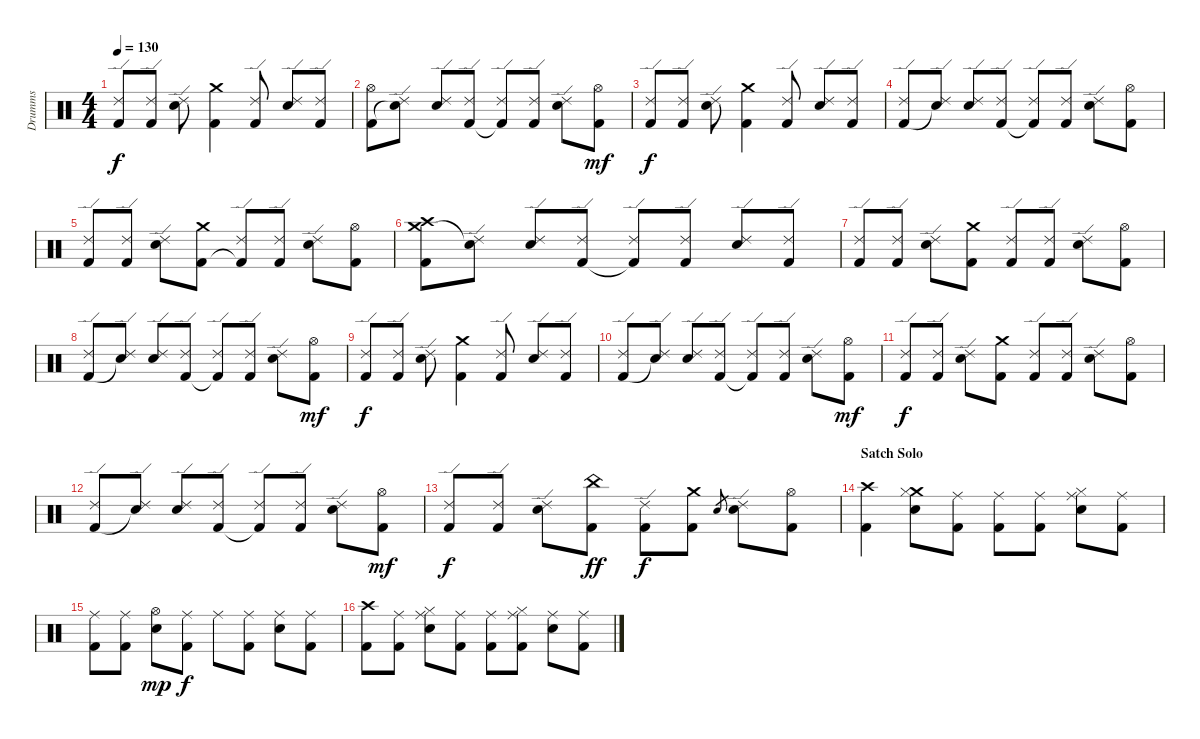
\track ("Drumms" "Drumms") {instrument percussion}
\staff {score}
\articulation defaults
\ts (4 4)
\tempo 130
\clef neutral
\ks c
("Ride (edge) 2" "Kick (hit) 2").8{dy f} ("Ride (edge) 2" "Kick (hit) 2").8 ("Ride (edge) 2" "Electric Snare (hit)").8 ("Crash medium (hit)" "Kick (hit) 2").4 ("Ride (edge) 2" "Kick (hit) 2").8 ("Ride (edge) 2" "Electric Snare (hit)").8 ("Ride (edge) 2" "Kick (hit) 2").8 |
("Hi-Hat (open)" "Kick (hit) 2").8 ("Ride (edge) 2" "Electric Snare (hit)"{t}).8 ("Ride (edge) 2" "Electric Snare (hit)").8 ("Ride (edge) 2" "Kick (hit) 2").8 ("Ride (edge) 2" "Kick (hit) 2"{t}).8 ("Ride (edge) 2" "Kick (hit) 2").8 ("Ride (edge) 2" "Electric Snare (hit)").8 ("Hi-Hat (open)" "Kick (hit) 2").8{dy mf} |
("Ride (edge) 2" "Kick (hit) 2").8{dy f} ("Ride (edge) 2" "Kick (hit) 2").8 ("Ride (edge) 2" "Electric Snare (hit)").8 ("Crash medium (hit)" "Kick (hit) 2").4 ("Ride (edge) 2" "Kick (hit) 2").8 ("Ride (edge) 2" "Electric Snare (hit)").8 ("Ride (edge) 2" "Kick (hit) 2").8 |
("Ride (edge) 2" "Kick (hit) 2").8 ("Ride (edge) 2" "Electric Snare (hit)"{t}).8 ("Ride (edge) 2" "Electric Snare (hit)").8 ("Ride (edge) 2" "Kick (hit) 2").8 ("Ride (edge) 2" "Kick (hit) 2"{t}).8 ("Ride (edge) 2" "Kick (hit) 2").8 ("Ride (edge) 2" "Electric Snare (hit)").8 ("Hi-Hat (open)" "Kick (hit) 2").8 |
("Ride (edge) 2" "Kick (hit) 2").8 ("Ride (edge) 2" "Kick (hit) 2").8 ("Ride (edge) 2" "Electric Snare (hit)").8 ("Crash medium (hit)" "Kick (hit) 2").8 ("Ride (edge) 2" "Kick (hit) 2"{t}).8 ("Ride (edge) 2" "Kick (hit) 2").8 ("Ride (edge) 2" "Electric Snare (hit)").8 ("Hi-Hat (open)" "Kick (hit) 2").8 |
("Crash high (hit)" "Crash medium (hit)" "Kick (hit) 2").8 ("Ride (edge) 2" "Electric Snare (hit)"{t}).8 ("Ride (edge) 2" "Electric Snare (hit)").8 ("Ride (edge) 2" "Kick (hit) 2").8 ("Ride (edge) 2" "Kick (hit) 2"{t}).8 ("Ride (edge) 2" "Kick (hit) 2").8 ("Ride (edge) 2" "Electric Snare (hit)").8 ("Ride (edge) 2" "Kick (hit) 2").8 |
("Ride (edge) 2" "Kick (hit) 2").8 ("Ride (edge) 2" "Kick (hit) 2").8 ("Ride (edge) 2" "Electric Snare (hit)").8 ("Crash medium (hit)" "Kick (hit) 2").8 ("Ride (edge) 2" "Kick (hit) 2").8 ("Ride (edge) 2" "Kick (hit) 2").8 ("Ride (edge) 2" "Electric Snare (hit)").8 ("Hi-Hat (open)" "Kick (hit) 2").8 |
("Ride (edge) 2" "Kick (hit) 2").8 ("Ride (edge) 2" "Electric Snare (hit)"{t}).8 ("Ride (edge) 2" "Electric Snare (hit)").8 ("Ride (edge) 2" "Kick (hit) 2").8 ("Ride (edge) 2" "Kick (hit) 2"{t}).8 ("Ride (edge) 2" "Kick (hit) 2").8 ("Ride (edge) 2" "Electric Snare (hit)").8 ("Hi-Hat (open)" "Kick (hit) 2").8{dy mf} |
("Ride (edge) 2" "Kick (hit) 2").8{dy f} ("Ride (edge) 2" "Kick (hit) 2").8 ("Ride (edge) 2" "Electric Snare (hit)").8 ("Crash medium (hit)" "Kick (hit) 2").4 ("Ride (edge) 2" "Kick (hit) 2").8 ("Ride (edge) 2" "Electric Snare (hit)").8 ("Ride (edge) 2" "Kick (hit) 2").8 |
("Ride (edge) 2" "Kick (hit) 2").8 ("Ride (edge) 2" "Electric Snare (hit)"{t}).8 ("Ride (edge) 2" "Electric Snare (hit)").8 ("Ride (edge) 2" "Kick (hit) 2").8 ("Ride (edge) 2" "Kick (hit) 2"{t}).8 ("Ride (edge) 2" "Kick (hit) 2").8 ("Ride (edge) 2" "Electric Snare (hit)").8 ("Hi-Hat (open)" "Kick (hit) 2").8{dy mf} |
("Ride (edge) 2" "Kick (hit) 2").8{dy f} ("Ride (edge) 2" "Kick (hit) 2").8 ("Ride (edge) 2" "Electric Snare (hit)").8 ("Crash medium (hit)" "Kick (hit) 2").8 ("Ride (edge) 2" "Kick (hit) 2").8 ("Ride (edge) 2" "Kick (hit) 2").8 ("Ride (edge) 2" "Electric Snare (hit)").8 ("Hi-Hat (open)" "Kick (hit) 2").8 |
("Ride (edge) 2" "Kick (hit) 2").8 ("Ride (edge) 2" "Electric Snare (hit)"{t}).8 ("Ride (edge) 2" "Electric Snare (hit)").8 ("Ride (edge) 2" "Kick (hit) 2").8 ("Ride (edge) 2" "Kick (hit) 2"{t}).8 ("Ride (edge) 2" "Kick (hit) 2").8 ("Ride (edge) 2" "Electric Snare (hit)").8 ("Hi-Hat (open)" "Kick (hit) 2").8{dy mf} |
("Ride (edge) 2" "Kick (hit) 2").8{dy f} ("Ride (edge) 2" "Kick (hit) 2").8 ("Ride (edge) 2" "Electric Snare (hit)").8 ("China (hit)" "Kick (hit) 2").8{dy ff} ("Ride (edge) 2" "Kick (hit) 2").8{dy f} ("Crash medium (hit)" "Kick (hit) 2").8 "Electric Snare (hit)".8{gr} ("Ride (edge) 2" "Electric Snare (hit)").8 ("Hi-Hat (open)" "Kick (hit) 2").8 |
\section ("" "Satch Solo")
("Crash high (hit)" "Kick (hit) 2").4 ("Crash medium (hit)" "Hi-Hat (closed)" "Electric Snare (hit)").8 ("Ride (middle)" "Kick (hit) 2").8 ("Ride (middle)" "Kick (hit) 2").8 ("Ride (middle)" "Kick (hit) 2").8 ("Ride (middle)" "Hi-Hat (closed)" "Electric Snare (hit)").8 ("Ride (middle)" "Kick (hit) 2").8 |
("Ride (middle)" "Kick (hit) 2").8 ("Ride (middle)" "Kick (hit) 2").8 ("Hi-Hat (open)" "Electric Snare (hit)").8{dy mp} ("Ride (middle)" "Kick (hit) 2").8{dy f} "Ride (middle)".8 ("Ride (middle)" "Kick (hit) 2").8 ("Ride (middle)" "Electric Snare (hit)").8 ("Ride (middle)" "Kick (hit) 2").8 |
("Crash high (hit)" "Kick (hit) 2").8 ("Ride (middle)" "Kick (hit) 2").8 ("Ride (middle)" "Hi-Hat (closed)" "Electric Snare (hit)").8 ("Ride (middle)" "Kick (hit) 2").8 ("Ride (middle)" "Kick (hit) 2").8 ("Ride (middle)" "Hi-Hat (closed)" "Kick (hit) 2").8 ("Ride (middle)" "Electric Snare (hit)").8 ("Ride (middle)" "Kick (hit) 2").8
